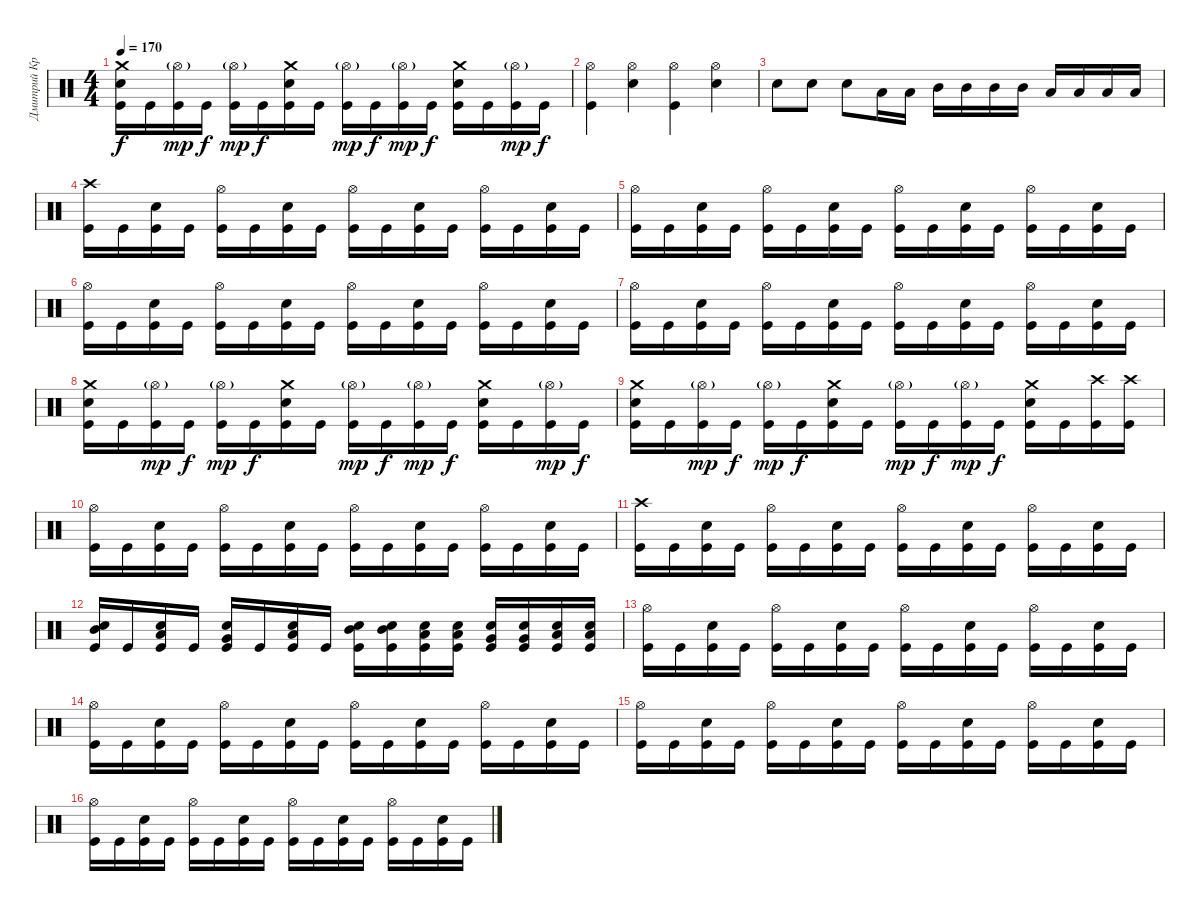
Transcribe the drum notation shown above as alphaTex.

\track ("Дмитрий Кривенков" "Дмитрий Кр") {instrument percussion}
\staff {score}
\articulation defaults
\ts (4 4)
\tempo 170
\clef neutral
\ks c
("Crash medium (hit)" "Snare (hit) 2" "Kick (hit)").16{dy f} "Kick (hit)".16 ("Hi-Hat (open)"{g} "Kick (hit)").16{dy mp} "Kick (hit)".16{dy f} ("Hi-Hat (open)"{g} "Kick (hit)").16{dy mp} "Kick (hit)".16{dy f} ("Crash medium (hit)" "Snare (hit) 2" "Kick (hit)").16 "Kick (hit)".16 ("Hi-Hat (open)"{g} "Kick (hit)").16{dy mp} "Kick (hit)".16{dy f} ("Hi-Hat (open)"{g} "Kick (hit)").16{dy mp} "Kick (hit)".16{dy f} ("Crash medium (hit)" "Snare (hit) 2" "Kick (hit)").16 "Kick (hit)".16 ("Hi-Hat (open)"{g} "Kick (hit)").16{dy mp} "Kick (hit)".16{dy f} |
("Hi-Hat (open)" "Kick (hit)").4 ("Hi-Hat (open)" "Snare (hit) 2").4 ("Hi-Hat (open)" "Kick (hit)").4 ("Hi-Hat (open)" "Snare (hit) 2").4 |
"Snare (hit) 2".8 "Snare (hit) 2".8 "Snare (hit) 2".8 "Low Tom (hit)".16 "Low Tom (hit)".16 "Mid Tom (hit)".16 "Mid Tom (hit)".16 "Mid Tom (hit)".16 "Mid Tom (hit)".16 "Low Tom (hit)".16 "Low Tom (hit)".16 "Low Tom (hit)".16 "Low Tom (hit)".16 |
("Crash high (hit)" "Kick (hit)").16 "Kick (hit)".16 ("Snare (hit) 2" "Kick (hit)").16 "Kick (hit)".16 ("Hi-Hat (open)" "Kick (hit)").16 "Kick (hit)".16 ("Snare (hit) 2" "Kick (hit)").16 "Kick (hit)".16 ("Hi-Hat (open)" "Kick (hit)").16 "Kick (hit)".16 ("Snare (hit) 2" "Kick (hit)").16 "Kick (hit)".16 ("Hi-Hat (open)" "Kick (hit)").16 "Kick (hit)".16 ("Snare (hit) 2" "Kick (hit)").16 "Kick (hit)".16 |
("Hi-Hat (open)" "Kick (hit)").16 "Kick (hit)".16 ("Snare (hit) 2" "Kick (hit)").16 "Kick (hit)".16 ("Hi-Hat (open)" "Kick (hit)").16 "Kick (hit)".16 ("Snare (hit) 2" "Kick (hit)").16 "Kick (hit)".16 ("Hi-Hat (open)" "Kick (hit)").16 "Kick (hit)".16 ("Snare (hit) 2" "Kick (hit)").16 "Kick (hit)".16 ("Hi-Hat (open)" "Kick (hit)").16 "Kick (hit)".16 ("Snare (hit) 2" "Kick (hit)").16 "Kick (hit)".16 |
("Hi-Hat (open)" "Kick (hit)").16 "Kick (hit)".16 ("Snare (hit) 2" "Kick (hit)").16 "Kick (hit)".16 ("Hi-Hat (open)" "Kick (hit)").16 "Kick (hit)".16 ("Snare (hit) 2" "Kick (hit)").16 "Kick (hit)".16 ("Hi-Hat (open)" "Kick (hit)").16 "Kick (hit)".16 ("Snare (hit) 2" "Kick (hit)").16 "Kick (hit)".16 ("Hi-Hat (open)" "Kick (hit)").16 "Kick (hit)".16 ("Snare (hit) 2" "Kick (hit)").16 "Kick (hit)".16 |
("Hi-Hat (open)" "Kick (hit)").16 "Kick (hit)".16 ("Snare (hit) 2" "Kick (hit)").16 "Kick (hit)".16 ("Hi-Hat (open)" "Kick (hit)").16 "Kick (hit)".16 ("Snare (hit) 2" "Kick (hit)").16 "Kick (hit)".16 ("Hi-Hat (open)" "Kick (hit)").16 "Kick (hit)".16 ("Snare (hit) 2" "Kick (hit)").16 "Kick (hit)".16 ("Hi-Hat (open)" "Kick (hit)").16 "Kick (hit)".16 ("Snare (hit) 2" "Kick (hit)").16 "Kick (hit)".16 |
("Crash medium (hit)" "Snare (hit) 2" "Kick (hit)").16 "Kick (hit)".16 ("Hi-Hat (open)"{g} "Kick (hit)").16{dy mp} "Kick (hit)".16{dy f} ("Hi-Hat (open)"{g} "Kick (hit)").16{dy mp} "Kick (hit)".16{dy f} ("Crash medium (hit)" "Snare (hit) 2" "Kick (hit)").16 "Kick (hit)".16 ("Hi-Hat (open)"{g} "Kick (hit)").16{dy mp} "Kick (hit)".16{dy f} ("Hi-Hat (open)"{g} "Kick (hit)").16{dy mp} "Kick (hit)".16{dy f} ("Crash medium (hit)" "Snare (hit) 2" "Kick (hit)").16 "Kick (hit)".16 ("Hi-Hat (open)"{g} "Kick (hit)").16{dy mp} "Kick (hit)".16{dy f} |
("Crash medium (hit)" "Snare (hit) 2" "Kick (hit)").16 "Kick (hit)".16 ("Hi-Hat (open)"{g} "Kick (hit)").16{dy mp} "Kick (hit)".16{dy f} ("Hi-Hat (open)"{g} "Kick (hit)").16{dy mp} "Kick (hit)".16{dy f} ("Crash medium (hit)" "Snare (hit) 2" "Kick (hit)").16 "Kick (hit)".16 ("Hi-Hat (open)"{g} "Kick (hit)").16{dy mp} "Kick (hit)".16{dy f} ("Hi-Hat (open)"{g} "Kick (hit)").16{dy mp} "Kick (hit)".16{dy f} ("Crash medium (hit)" "Snare (hit) 2" "Kick (hit)").16 "Kick (hit)".16 ("Crash high (hit)" "Kick (hit)").16 ("Crash high (hit)" "Kick (hit)").16 |
("Hi-Hat (open)" "Kick (hit)").16 "Kick (hit)".16 ("Snare (hit) 2" "Kick (hit)").16 "Kick (hit)".16 ("Hi-Hat (open)" "Kick (hit)").16 "Kick (hit)".16 ("Snare (hit) 2" "Kick (hit)").16 "Kick (hit)".16 ("Hi-Hat (open)" "Kick (hit)").16 "Kick (hit)".16 ("Snare (hit) 2" "Kick (hit)").16 "Kick (hit)".16 ("Hi-Hat (open)" "Kick (hit)").16 "Kick (hit)".16 ("Snare (hit) 2" "Kick (hit)").16 "Kick (hit)".16 |
("Crash high (hit)" "Kick (hit)").16 "Kick (hit)".16 ("Snare (hit) 2" "Kick (hit)").16 "Kick (hit)".16 ("Hi-Hat (open)" "Kick (hit)").16 "Kick (hit)".16 ("Snare (hit) 2" "Kick (hit)").16 "Kick (hit)".16 ("Hi-Hat (open)" "Kick (hit)").16 "Kick (hit)".16 ("Snare (hit) 2" "Kick (hit)").16 "Kick (hit)".16 ("Hi-Hat (open)" "Kick (hit)").16 "Kick (hit)".16 ("Snare (hit) 2" "Kick (hit)").16 "Kick (hit)".16 |
("Mid Tom (hit)" "Snare (hit) 2" "Kick (hit)").16 "Kick (hit)".16 ("Low Tom (hit)" "Snare (hit) 2" "Kick (hit)").16 "Kick (hit)".16 ("Very Low Tom (hit)" "Snare (hit) 2" "Kick (hit)").16 "Kick (hit)".16 ("Low Floor Tom (hit)" "Snare (hit) 2" "Kick (hit)").16 "Kick (hit)".16 ("Mid Tom (hit)" "Snare (hit) 2" "Kick (hit)").16 ("Mid Tom (hit)" "Snare (hit) 2" "Kick (hit)").16 ("Low Tom (hit)" "Snare (hit) 2" "Kick (hit)").16 ("Low Tom (hit)" "Snare (hit) 2" "Kick (hit)").16 ("Very Low Tom (hit)" "Snare (hit) 2" "Kick (hit)").16 ("Very Low Tom (hit)" "Snare (hit) 2" "Kick (hit)").16 ("Low Floor Tom (hit)" "Snare (hit) 2" "Kick (hit)").16 ("Low Floor Tom (hit)" "Snare (hit) 2" "Kick (hit)").16 |
("Hi-Hat (open)" "Kick (hit)").16 "Kick (hit)".16 ("Snare (hit) 2" "Kick (hit)").16 "Kick (hit)".16 ("Hi-Hat (open)" "Kick (hit)").16 "Kick (hit)".16 ("Snare (hit) 2" "Kick (hit)").16 "Kick (hit)".16 ("Hi-Hat (open)" "Kick (hit)").16 "Kick (hit)".16 ("Snare (hit) 2" "Kick (hit)").16 "Kick (hit)".16 ("Hi-Hat (open)" "Kick (hit)").16 "Kick (hit)".16 ("Snare (hit) 2" "Kick (hit)").16 "Kick (hit)".16 |
("Hi-Hat (open)" "Kick (hit)").16 "Kick (hit)".16 ("Snare (hit) 2" "Kick (hit)").16 "Kick (hit)".16 ("Hi-Hat (open)" "Kick (hit)").16 "Kick (hit)".16 ("Snare (hit) 2" "Kick (hit)").16 "Kick (hit)".16 ("Hi-Hat (open)" "Kick (hit)").16 "Kick (hit)".16 ("Snare (hit) 2" "Kick (hit)").16 "Kick (hit)".16 ("Hi-Hat (open)" "Kick (hit)").16 "Kick (hit)".16 ("Snare (hit) 2" "Kick (hit)").16 "Kick (hit)".16 |
("Hi-Hat (open)" "Kick (hit)").16 "Kick (hit)".16 ("Snare (hit) 2" "Kick (hit)").16 "Kick (hit)".16 ("Hi-Hat (open)" "Kick (hit)").16 "Kick (hit)".16 ("Snare (hit) 2" "Kick (hit)").16 "Kick (hit)".16 ("Hi-Hat (open)" "Kick (hit)").16 "Kick (hit)".16 ("Snare (hit) 2" "Kick (hit)").16 "Kick (hit)".16 ("Hi-Hat (open)" "Kick (hit)").16 "Kick (hit)".16 ("Snare (hit) 2" "Kick (hit)").16 "Kick (hit)".16 |
("Hi-Hat (open)" "Kick (hit)").16 "Kick (hit)".16 ("Snare (hit) 2" "Kick (hit)").16 "Kick (hit)".16 ("Hi-Hat (open)" "Kick (hit)").16 "Kick (hit)".16 ("Snare (hit) 2" "Kick (hit)").16 "Kick (hit)".16 ("Hi-Hat (open)" "Kick (hit)").16 "Kick (hit)".16 ("Snare (hit) 2" "Kick (hit)").16 "Kick (hit)".16 ("Hi-Hat (open)" "Kick (hit)").16 "Kick (hit)".16 ("Snare (hit) 2" "Kick (hit)").16 "Kick (hit)".16
